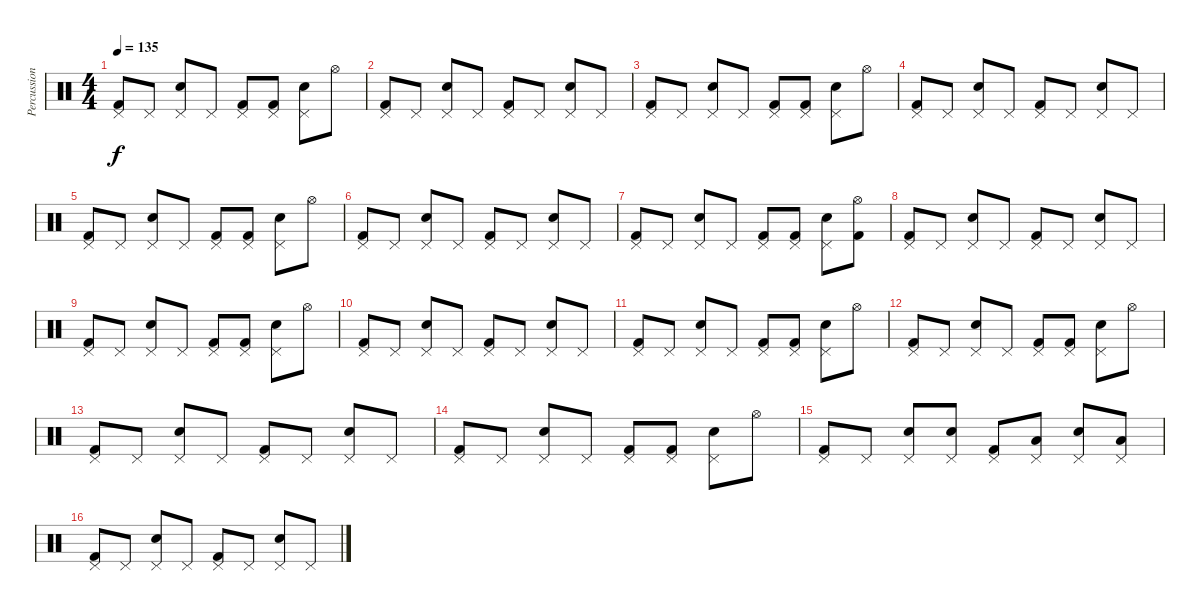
\track ("Percussion" "Percussion") {instrument percussion}
\staff {score}
\articulation defaults
\ts (4 4)
\tempo 135
\clef neutral
\ks c
("Pedal Hi-Hat (hit)" "Kick (hit) 2").8{dy f} "Pedal Hi-Hat (hit)".8 ("Pedal Hi-Hat (hit)" "Electric Snare (hit)").8 "Pedal Hi-Hat (hit)".8 ("Pedal Hi-Hat (hit)" "Kick (hit) 2").8 ("Pedal Hi-Hat (hit)" "Kick (hit) 2").8 ("Pedal Hi-Hat (hit)" "Electric Snare (hit)").8 "Hi-Hat (open)".8 |
("Pedal Hi-Hat (hit)" "Kick (hit) 2").8 "Pedal Hi-Hat (hit)".8 ("Pedal Hi-Hat (hit)" "Electric Snare (hit)").8 "Pedal Hi-Hat (hit)".8 ("Pedal Hi-Hat (hit)" "Kick (hit) 2").8 "Pedal Hi-Hat (hit)".8 ("Pedal Hi-Hat (hit)" "Electric Snare (hit)").8 "Pedal Hi-Hat (hit)".8 |
("Pedal Hi-Hat (hit)" "Kick (hit) 2").8 "Pedal Hi-Hat (hit)".8 ("Pedal Hi-Hat (hit)" "Electric Snare (hit)").8 "Pedal Hi-Hat (hit)".8 ("Pedal Hi-Hat (hit)" "Kick (hit) 2").8 ("Pedal Hi-Hat (hit)" "Kick (hit) 2").8 ("Pedal Hi-Hat (hit)" "Electric Snare (hit)").8 "Hi-Hat (open)".8 |
("Pedal Hi-Hat (hit)" "Kick (hit) 2").8 "Pedal Hi-Hat (hit)".8 ("Pedal Hi-Hat (hit)" "Electric Snare (hit)").8 "Pedal Hi-Hat (hit)".8 ("Pedal Hi-Hat (hit)" "Kick (hit) 2").8 "Pedal Hi-Hat (hit)".8 ("Pedal Hi-Hat (hit)" "Electric Snare (hit)").8 "Pedal Hi-Hat (hit)".8 |
("Pedal Hi-Hat (hit)" "Kick (hit) 2").8 "Pedal Hi-Hat (hit)".8 ("Pedal Hi-Hat (hit)" "Electric Snare (hit)").8 "Pedal Hi-Hat (hit)".8 ("Pedal Hi-Hat (hit)" "Kick (hit) 2").8 ("Pedal Hi-Hat (hit)" "Kick (hit) 2").8 ("Pedal Hi-Hat (hit)" "Electric Snare (hit)").8 "Hi-Hat (open)".8 |
("Pedal Hi-Hat (hit)" "Kick (hit) 2").8 "Pedal Hi-Hat (hit)".8 ("Pedal Hi-Hat (hit)" "Electric Snare (hit)").8 "Pedal Hi-Hat (hit)".8 ("Pedal Hi-Hat (hit)" "Kick (hit) 2").8 "Pedal Hi-Hat (hit)".8 ("Pedal Hi-Hat (hit)" "Electric Snare (hit)").8 "Pedal Hi-Hat (hit)".8 |
("Pedal Hi-Hat (hit)" "Kick (hit) 2").8 "Pedal Hi-Hat (hit)".8 ("Pedal Hi-Hat (hit)" "Electric Snare (hit)").8 "Pedal Hi-Hat (hit)".8 ("Pedal Hi-Hat (hit)" "Kick (hit) 2").8 ("Pedal Hi-Hat (hit)" "Kick (hit) 2").8 ("Pedal Hi-Hat (hit)" "Electric Snare (hit)").8 ("Hi-Hat (open)" "Kick (hit) 2").8 |
("Pedal Hi-Hat (hit)" "Kick (hit) 2").8 "Pedal Hi-Hat (hit)".8 ("Pedal Hi-Hat (hit)" "Electric Snare (hit)").8 "Pedal Hi-Hat (hit)".8 ("Pedal Hi-Hat (hit)" "Kick (hit) 2").8 "Pedal Hi-Hat (hit)".8 ("Pedal Hi-Hat (hit)" "Electric Snare (hit)").8 "Pedal Hi-Hat (hit)".8 |
("Pedal Hi-Hat (hit)" "Kick (hit) 2").8 "Pedal Hi-Hat (hit)".8 ("Pedal Hi-Hat (hit)" "Electric Snare (hit)").8 "Pedal Hi-Hat (hit)".8 ("Pedal Hi-Hat (hit)" "Kick (hit) 2").8 ("Pedal Hi-Hat (hit)" "Kick (hit) 2").8 ("Pedal Hi-Hat (hit)" "Electric Snare (hit)").8 "Hi-Hat (open)".8 |
("Pedal Hi-Hat (hit)" "Kick (hit) 2").8 "Pedal Hi-Hat (hit)".8 ("Pedal Hi-Hat (hit)" "Electric Snare (hit)").8 "Pedal Hi-Hat (hit)".8 ("Pedal Hi-Hat (hit)" "Kick (hit) 2").8 "Pedal Hi-Hat (hit)".8 ("Pedal Hi-Hat (hit)" "Electric Snare (hit)").8 "Pedal Hi-Hat (hit)".8 |
("Pedal Hi-Hat (hit)" "Kick (hit) 2").8 "Pedal Hi-Hat (hit)".8 ("Pedal Hi-Hat (hit)" "Electric Snare (hit)").8 "Pedal Hi-Hat (hit)".8 ("Pedal Hi-Hat (hit)" "Kick (hit) 2").8 ("Pedal Hi-Hat (hit)" "Kick (hit) 2").8 ("Pedal Hi-Hat (hit)" "Electric Snare (hit)").8 "Hi-Hat (open)".8 |
("Pedal Hi-Hat (hit)" "Kick (hit) 2").8 "Pedal Hi-Hat (hit)".8 ("Pedal Hi-Hat (hit)" "Electric Snare (hit)").8 "Pedal Hi-Hat (hit)".8 ("Pedal Hi-Hat (hit)" "Kick (hit) 2").8 ("Pedal Hi-Hat (hit)" "Kick (hit) 2").8 ("Pedal Hi-Hat (hit)" "Electric Snare (hit)").8 "Hi-Hat (open)".8 |
("Pedal Hi-Hat (hit)" "Kick (hit) 2").8 "Pedal Hi-Hat (hit)".8 ("Pedal Hi-Hat (hit)" "Electric Snare (hit)").8 "Pedal Hi-Hat (hit)".8 ("Pedal Hi-Hat (hit)" "Kick (hit) 2").8 "Pedal Hi-Hat (hit)".8 ("Pedal Hi-Hat (hit)" "Electric Snare (hit)").8 "Pedal Hi-Hat (hit)".8 |
("Pedal Hi-Hat (hit)" "Kick (hit) 2").8 "Pedal Hi-Hat (hit)".8 ("Pedal Hi-Hat (hit)" "Electric Snare (hit)").8 "Pedal Hi-Hat (hit)".8 ("Pedal Hi-Hat (hit)" "Kick (hit) 2").8 ("Pedal Hi-Hat (hit)" "Kick (hit) 2").8 ("Pedal Hi-Hat (hit)" "Electric Snare (hit)").8 "Hi-Hat (open)".8 |
("Pedal Hi-Hat (hit)" "Kick (hit) 2").8 "Pedal Hi-Hat (hit)".8 ("Pedal Hi-Hat (hit)" "Electric Snare (hit)").8 ("Pedal Hi-Hat (hit)" "Electric Snare (hit)").8 ("Pedal Hi-Hat (hit)" "Kick (hit) 2").8 ("Pedal Hi-Hat (hit)" "Low Floor Tom (hit)").8 ("Pedal Hi-Hat (hit)" "Electric Snare (hit)").8 ("Pedal Hi-Hat (hit)" "Low Floor Tom (hit)").8 |
("Pedal Hi-Hat (hit)" "Kick (hit) 2").8 "Pedal Hi-Hat (hit)".8 ("Pedal Hi-Hat (hit)" "Electric Snare (hit)").8 "Pedal Hi-Hat (hit)".8 ("Pedal Hi-Hat (hit)" "Kick (hit) 2").8 "Pedal Hi-Hat (hit)".8 ("Pedal Hi-Hat (hit)" "Electric Snare (hit)").8 "Pedal Hi-Hat (hit)".8
